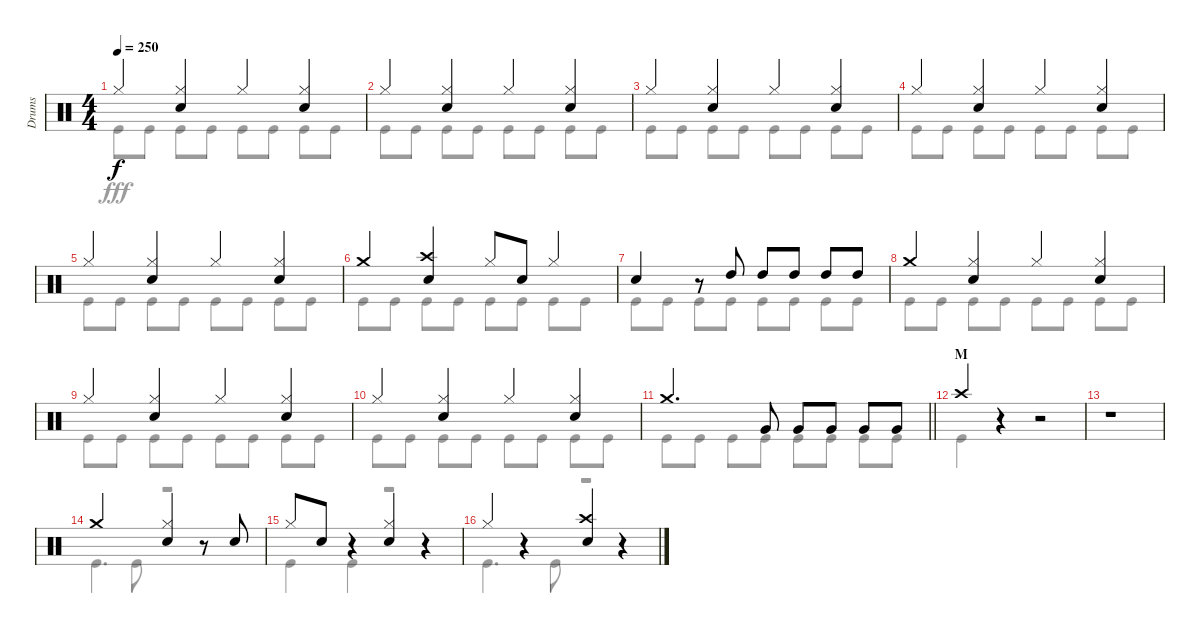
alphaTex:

\track ("Drums" "Drums") {instrument percussion}
\staff {score}
\articulation defaults
\voice
\ts (4 4)
\tempo 250
\clef neutral
\ks c "Hi-Hat (closed)".4{dy f}
("Hi-Hat (closed)" "Snare (hit) 2").4 "Hi-Hat (closed)".4 ("Hi-Hat (closed)" "Snare (hit) 2").4 |
"Hi-Hat (closed)".4 ("Hi-Hat (closed)" "Snare (hit) 2").4 "Hi-Hat (closed)".4 ("Hi-Hat (closed)" "Snare (hit) 2").4 |
"Hi-Hat (closed)".4 ("Hi-Hat (closed)" "Snare (hit) 2").4 "Hi-Hat (closed)".4 ("Hi-Hat (closed)" "Snare (hit) 2").4 |
"Hi-Hat (closed)".4 ("Hi-Hat (closed)" "Snare (hit) 2").4 "Hi-Hat (closed)".4 ("Hi-Hat (closed)" "Snare (hit) 2").4 |
"Hi-Hat (closed)".4 ("Hi-Hat (closed)" "Snare (hit) 2").4 "Hi-Hat (closed)".4 ("Hi-Hat (closed)" "Snare (hit) 2").4 |
"Crash medium (hit)".4 ("Crash high (hit)" "Snare (hit) 2").4 "Hi-Hat (closed)".8 "Snare (hit) 2".8 "Hi-Hat (closed)".4 |
"Snare (hit) 2".4 r.8 "High Tom (hit)".8 "High Tom (hit)".8 "High Tom (hit)".8 "High Tom (hit)".8 "High Tom (hit)".8 |
"Crash medium (hit)".4 ("Hi-Hat (closed)" "Snare (hit) 2").4 "Hi-Hat (closed)".4 ("Hi-Hat (closed)" "Snare (hit) 2").4 |
"Hi-Hat (closed)".4 ("Hi-Hat (closed)" "Snare (hit) 2").4 "Hi-Hat (closed)".4 ("Hi-Hat (closed)" "Snare (hit) 2").4 |
"Hi-Hat (closed)".4 ("Hi-Hat (closed)" "Snare (hit) 2").4 "Hi-Hat (closed)".4 ("Hi-Hat (closed)" "Snare (hit) 2").4 |
\barLineRight lightlight "Crash medium (hit)".4{d} "Very Low Tom (hit)".8 "Very Low Tom (hit)".8 "Very Low Tom (hit)".8 "Very Low Tom (hit)".8 "Very Low Tom (hit)".8
|
\section ("" "M")
"Crash high (hit)".4 r.4 r.2 |
r.1 |
"Crash medium (hit)".2 ("Hi-Hat (closed)" "Snare (hit) 2").4 r.8 "Snare (hit) 2".8 |
"Hi-Hat (closed)".8 "Snare (hit) 2".8 r.4 ("Hi-Hat (closed)" "Snare (hit) 2").4 r.4 |
"Hi-Hat (closed)".4 r.4 ("Crash high (hit)" "Snare (hit) 2").4 r.4
\voice
\clef neutral
\ottava regular
\simile none
\ks c "Kick (hit)".8{dy fff} "Kick (hit)".8 "Kick (hit)".8 "Kick (hit)".8 "Kick (hit)".8 "Kick (hit)".8 "Kick (hit)".8 "Kick (hit)".8
|
"Kick (hit)".8 "Kick (hit)".8 "Kick (hit)".8 "Kick (hit)".8 "Kick (hit)".8 "Kick (hit)".8 "Kick (hit)".8 "Kick (hit)".8 |
"Kick (hit)".8 "Kick (hit)".8 "Kick (hit)".8 "Kick (hit)".8 "Kick (hit)".8 "Kick (hit)".8 "Kick (hit)".8 "Kick (hit)".8 |
"Kick (hit)".8 "Kick (hit)".8 "Kick (hit)".8 "Kick (hit)".8 "Kick (hit)".8 "Kick (hit)".8 "Kick (hit)".8 "Kick (hit)".8 |
"Kick (hit)".8 "Kick (hit)".8 "Kick (hit)".8 "Kick (hit)".8 "Kick (hit)".8 "Kick (hit)".8 "Kick (hit)".8 "Kick (hit)".8 |
"Kick (hit)".8 "Kick (hit)".8 "Kick (hit)".8 "Kick (hit)".8 "Kick (hit)".8 "Kick (hit)".8 "Kick (hit)".8 "Kick (hit)".8 |
"Kick (hit)".8 "Kick (hit)".8 "Kick (hit)".8 "Kick (hit)".8 "Kick (hit)".8 "Kick (hit)".8 "Kick (hit)".8 "Kick (hit)".8 |
"Kick (hit)".8 "Kick (hit)".8 "Kick (hit)".8 "Kick (hit)".8 "Kick (hit)".8 "Kick (hit)".8 "Kick (hit)".8 "Kick (hit)".8 |
"Kick (hit)".8 "Kick (hit)".8 "Kick (hit)".8 "Kick (hit)".8 "Kick (hit)".8 "Kick (hit)".8 "Kick (hit)".8 "Kick (hit)".8 |
"Kick (hit)".8 "Kick (hit)".8 "Kick (hit)".8 "Kick (hit)".8 "Kick (hit)".8 "Kick (hit)".8 "Kick (hit)".8 "Kick (hit)".8 |
\barLineRight lightlight "Kick (hit)".8 "Kick (hit)".8 "Kick (hit)".8 "Kick (hit)".8 "Kick (hit)".8 "Kick (hit)".8 "Kick (hit)".8 "Kick (hit)".8
|
"Kick (hit)".4 r.4 r.2 |
r.1 |
"Kick (hit)".4{d} "Kick (hit)".8 r.2 |
"Kick (hit)".4 "Kick (hit)".4 r.2 |
"Kick (hit)".4{d} "Kick (hit)".8 r.2
